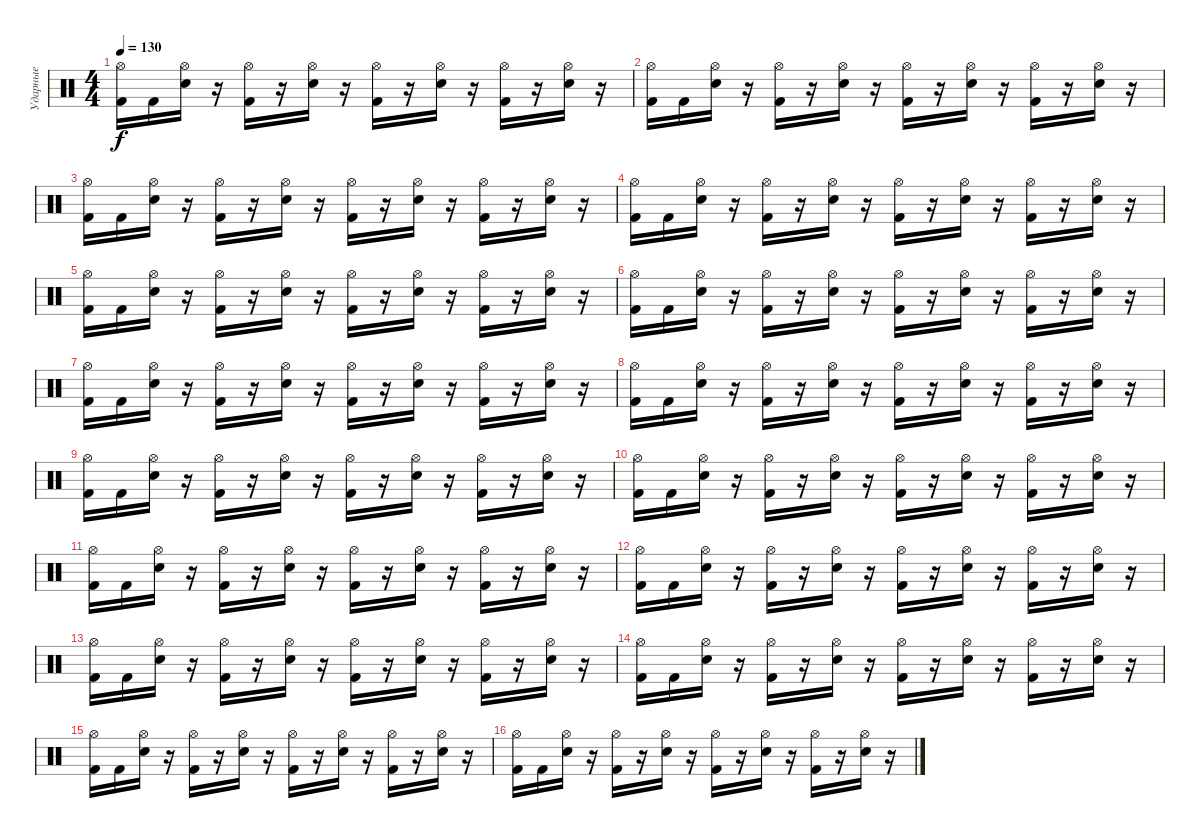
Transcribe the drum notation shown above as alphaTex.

\track ("Ударные" "Ударные") {instrument percussion}
\staff {score}
\articulation defaults
\ts (4 4)
\tempo 130
\clef neutral
\ks c
("Hi-Hat (open)" "Kick (hit) 2").16{dy f} "Kick (hit) 2".16 ("Hi-Hat (open)" "Electric Snare (hit)").16 r.16 ("Hi-Hat (open)" "Kick (hit) 2").16 r.16 ("Hi-Hat (open)" "Electric Snare (hit)").16 r.16 ("Hi-Hat (open)" "Kick (hit) 2").16 r.16 ("Hi-Hat (open)" "Electric Snare (hit)").16 r.16 ("Hi-Hat (open)" "Kick (hit) 2").16 r.16 ("Hi-Hat (open)" "Electric Snare (hit)").16 r.16 |
("Hi-Hat (open)" "Kick (hit) 2").16 "Kick (hit) 2".16 ("Hi-Hat (open)" "Electric Snare (hit)").16 r.16 ("Hi-Hat (open)" "Kick (hit) 2").16 r.16 ("Hi-Hat (open)" "Electric Snare (hit)").16 r.16 ("Hi-Hat (open)" "Kick (hit) 2").16 r.16 ("Hi-Hat (open)" "Electric Snare (hit)").16 r.16 ("Hi-Hat (open)" "Kick (hit) 2").16 r.16 ("Hi-Hat (open)" "Electric Snare (hit)").16 r.16 |
("Hi-Hat (open)" "Kick (hit) 2").16 "Kick (hit) 2".16 ("Hi-Hat (open)" "Electric Snare (hit)").16 r.16 ("Hi-Hat (open)" "Kick (hit) 2").16 r.16 ("Hi-Hat (open)" "Electric Snare (hit)").16 r.16 ("Hi-Hat (open)" "Kick (hit) 2").16 r.16 ("Hi-Hat (open)" "Electric Snare (hit)").16 r.16 ("Hi-Hat (open)" "Kick (hit) 2").16 r.16 ("Hi-Hat (open)" "Electric Snare (hit)").16 r.16 |
("Hi-Hat (open)" "Kick (hit) 2").16 "Kick (hit) 2".16 ("Hi-Hat (open)" "Electric Snare (hit)").16 r.16 ("Hi-Hat (open)" "Kick (hit) 2").16 r.16 ("Hi-Hat (open)" "Electric Snare (hit)").16 r.16 ("Hi-Hat (open)" "Kick (hit) 2").16 r.16 ("Hi-Hat (open)" "Electric Snare (hit)").16 r.16 ("Hi-Hat (open)" "Kick (hit) 2").16 r.16 ("Hi-Hat (open)" "Electric Snare (hit)").16 r.16 |
("Hi-Hat (open)" "Kick (hit) 2").16 "Kick (hit) 2".16 ("Hi-Hat (open)" "Electric Snare (hit)").16 r.16 ("Hi-Hat (open)" "Kick (hit) 2").16 r.16 ("Hi-Hat (open)" "Electric Snare (hit)").16 r.16 ("Hi-Hat (open)" "Kick (hit) 2").16 r.16 ("Hi-Hat (open)" "Electric Snare (hit)").16 r.16 ("Hi-Hat (open)" "Kick (hit) 2").16 r.16 ("Hi-Hat (open)" "Electric Snare (hit)").16 r.16 |
("Hi-Hat (open)" "Kick (hit) 2").16 "Kick (hit) 2".16 ("Hi-Hat (open)" "Electric Snare (hit)").16 r.16 ("Hi-Hat (open)" "Kick (hit) 2").16 r.16 ("Hi-Hat (open)" "Electric Snare (hit)").16 r.16 ("Hi-Hat (open)" "Kick (hit) 2").16 r.16 ("Hi-Hat (open)" "Electric Snare (hit)").16 r.16 ("Hi-Hat (open)" "Kick (hit) 2").16 r.16 ("Hi-Hat (open)" "Electric Snare (hit)").16 r.16 |
("Hi-Hat (open)" "Kick (hit) 2").16 "Kick (hit) 2".16 ("Hi-Hat (open)" "Electric Snare (hit)").16 r.16 ("Hi-Hat (open)" "Kick (hit) 2").16 r.16 ("Hi-Hat (open)" "Electric Snare (hit)").16 r.16 ("Hi-Hat (open)" "Kick (hit) 2").16 r.16 ("Hi-Hat (open)" "Electric Snare (hit)").16 r.16 ("Hi-Hat (open)" "Kick (hit) 2").16 r.16 ("Hi-Hat (open)" "Electric Snare (hit)").16 r.16 |
("Hi-Hat (open)" "Kick (hit) 2").16 "Kick (hit) 2".16 ("Hi-Hat (open)" "Electric Snare (hit)").16 r.16 ("Hi-Hat (open)" "Kick (hit) 2").16 r.16 ("Hi-Hat (open)" "Electric Snare (hit)").16 r.16 ("Hi-Hat (open)" "Kick (hit) 2").16 r.16 ("Hi-Hat (open)" "Electric Snare (hit)").16 r.16 ("Hi-Hat (open)" "Kick (hit) 2").16 r.16 ("Hi-Hat (open)" "Electric Snare (hit)").16 r.16 |
("Hi-Hat (open)" "Kick (hit) 2").16 "Kick (hit) 2".16 ("Hi-Hat (open)" "Electric Snare (hit)").16 r.16 ("Hi-Hat (open)" "Kick (hit) 2").16 r.16 ("Hi-Hat (open)" "Electric Snare (hit)").16 r.16 ("Hi-Hat (open)" "Kick (hit) 2").16 r.16 ("Hi-Hat (open)" "Electric Snare (hit)").16 r.16 ("Hi-Hat (open)" "Kick (hit) 2").16 r.16 ("Hi-Hat (open)" "Electric Snare (hit)").16 r.16 |
("Hi-Hat (open)" "Kick (hit) 2").16 "Kick (hit) 2".16 ("Hi-Hat (open)" "Electric Snare (hit)").16 r.16 ("Hi-Hat (open)" "Kick (hit) 2").16 r.16 ("Hi-Hat (open)" "Electric Snare (hit)").16 r.16 ("Hi-Hat (open)" "Kick (hit) 2").16 r.16 ("Hi-Hat (open)" "Electric Snare (hit)").16 r.16 ("Hi-Hat (open)" "Kick (hit) 2").16 r.16 ("Hi-Hat (open)" "Electric Snare (hit)").16 r.16 |
("Hi-Hat (open)" "Kick (hit) 2").16 "Kick (hit) 2".16 ("Hi-Hat (open)" "Electric Snare (hit)").16 r.16 ("Hi-Hat (open)" "Kick (hit) 2").16 r.16 ("Hi-Hat (open)" "Electric Snare (hit)").16 r.16 ("Hi-Hat (open)" "Kick (hit) 2").16 r.16 ("Hi-Hat (open)" "Electric Snare (hit)").16 r.16 ("Hi-Hat (open)" "Kick (hit) 2").16 r.16 ("Hi-Hat (open)" "Electric Snare (hit)").16 r.16 |
("Hi-Hat (open)" "Kick (hit) 2").16 "Kick (hit) 2".16 ("Hi-Hat (open)" "Electric Snare (hit)").16 r.16 ("Hi-Hat (open)" "Kick (hit) 2").16 r.16 ("Hi-Hat (open)" "Electric Snare (hit)").16 r.16 ("Hi-Hat (open)" "Kick (hit) 2").16 r.16 ("Hi-Hat (open)" "Electric Snare (hit)").16 r.16 ("Hi-Hat (open)" "Kick (hit) 2").16 r.16 ("Hi-Hat (open)" "Electric Snare (hit)").16 r.16 |
("Hi-Hat (open)" "Kick (hit) 2").16 "Kick (hit) 2".16 ("Hi-Hat (open)" "Electric Snare (hit)").16 r.16 ("Hi-Hat (open)" "Kick (hit) 2").16 r.16 ("Hi-Hat (open)" "Electric Snare (hit)").16 r.16 ("Hi-Hat (open)" "Kick (hit) 2").16 r.16 ("Hi-Hat (open)" "Electric Snare (hit)").16 r.16 ("Hi-Hat (open)" "Kick (hit) 2").16 r.16 ("Hi-Hat (open)" "Electric Snare (hit)").16 r.16 |
("Hi-Hat (open)" "Kick (hit) 2").16 "Kick (hit) 2".16 ("Hi-Hat (open)" "Electric Snare (hit)").16 r.16 ("Hi-Hat (open)" "Kick (hit) 2").16 r.16 ("Hi-Hat (open)" "Electric Snare (hit)").16 r.16 ("Hi-Hat (open)" "Kick (hit) 2").16 r.16 ("Hi-Hat (open)" "Electric Snare (hit)").16 r.16 ("Hi-Hat (open)" "Kick (hit) 2").16 r.16 ("Hi-Hat (open)" "Electric Snare (hit)").16 r.16 |
("Hi-Hat (open)" "Kick (hit) 2").16 "Kick (hit) 2".16 ("Hi-Hat (open)" "Electric Snare (hit)").16 r.16 ("Hi-Hat (open)" "Kick (hit) 2").16 r.16 ("Hi-Hat (open)" "Electric Snare (hit)").16 r.16 ("Hi-Hat (open)" "Kick (hit) 2").16 r.16 ("Hi-Hat (open)" "Electric Snare (hit)").16 r.16 ("Hi-Hat (open)" "Kick (hit) 2").16 r.16 ("Hi-Hat (open)" "Electric Snare (hit)").16 r.16 |
("Hi-Hat (open)" "Kick (hit) 2").16 "Kick (hit) 2".16 ("Hi-Hat (open)" "Electric Snare (hit)").16 r.16 ("Hi-Hat (open)" "Kick (hit) 2").16 r.16 ("Hi-Hat (open)" "Electric Snare (hit)").16 r.16 ("Hi-Hat (open)" "Kick (hit) 2").16 r.16 ("Hi-Hat (open)" "Electric Snare (hit)").16 r.16 ("Hi-Hat (open)" "Kick (hit) 2").16 r.16 ("Hi-Hat (open)" "Electric Snare (hit)").16 r.16
